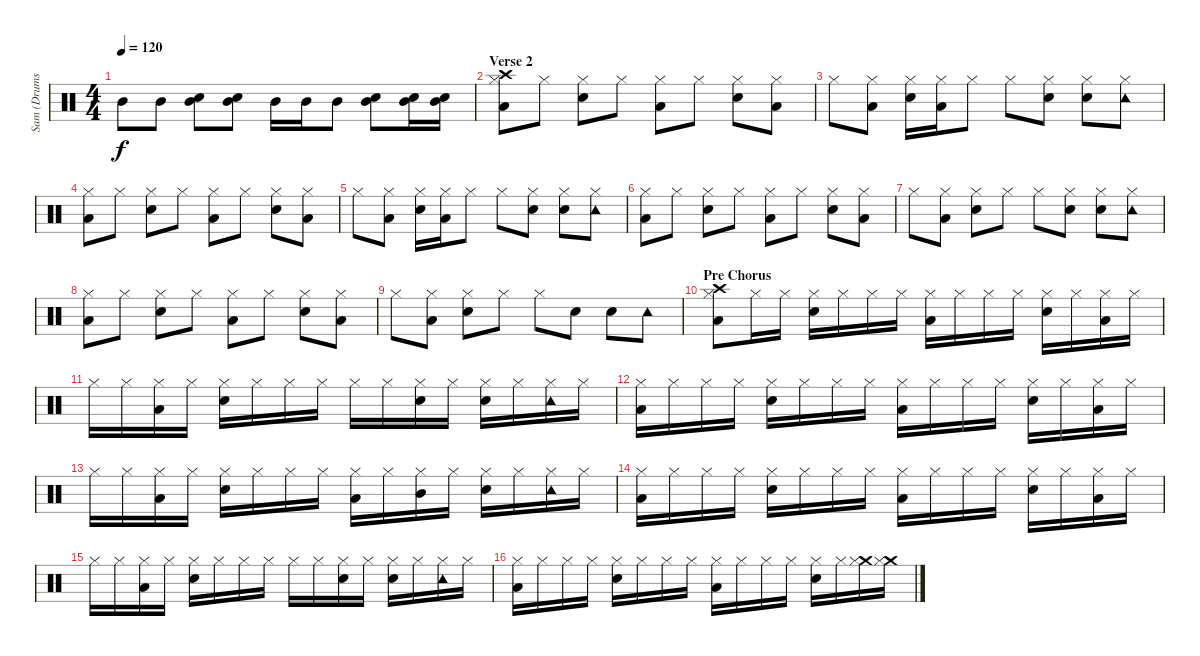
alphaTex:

\track ("Sam (Drums)" "Sam (Drums") {instrument percussion}
\staff {score}
\articulation defaults
\ts (4 4)
\tempo 120
\clef neutral
\ks c "Mid Tom (hit)".8{dy f} "Mid Tom (hit)".8
("Snare (hit) 2" "Mid Tom (hit)").8 ("Snare (hit) 2" "Mid Tom (hit)").8 "Mid Tom (hit)".16 "Mid Tom (hit)".16 "Mid Tom (hit)".8 ("Snare (hit) 2" "Mid Tom (hit)").8 ("Snare (hit) 2" "Mid Tom (hit)").16 ("Snare (hit) 2" "Mid Tom (hit)").16 |
\section ("" "Verse 2")
("Crash high (hit)" "Low Tom (hit)" "Hi-Hat (closed)").8 "Hi-Hat (closed)".8 ("Snare (hit) 2" "Hi-Hat (closed)").8 "Hi-Hat (closed)".8 ("Low Tom (hit)" "Hi-Hat (closed)").8 "Hi-Hat (closed)".8 ("Snare (hit) 2" "Hi-Hat (closed)").8 ("Low Tom (hit)" "Hi-Hat (closed)").8 |
"Hi-Hat (closed)".8 ("Low Tom (hit)" "Hi-Hat (closed)").8 ("Snare (hit) 2" "Hi-Hat (closed)").16 ("Low Tom (hit)" "Hi-Hat (closed)").16 "Hi-Hat (closed)".8 "Hi-Hat (closed)".8 ("Snare (hit) 2" "Hi-Hat (closed)").8 ("Snare (hit) 2" "Hi-Hat (closed)").8 ("Tambourine (hit)" "Hi-Hat (closed)").8 |
("Low Tom (hit)" "Hi-Hat (closed)").8 "Hi-Hat (closed)".8 ("Snare (hit) 2" "Hi-Hat (closed)").8 "Hi-Hat (closed)".8 ("Low Tom (hit)" "Hi-Hat (closed)").8 "Hi-Hat (closed)".8 ("Snare (hit) 2" "Hi-Hat (closed)").8 ("Low Tom (hit)" "Hi-Hat (closed)").8 |
"Hi-Hat (closed)".8 ("Low Tom (hit)" "Hi-Hat (closed)").8 ("Snare (hit) 2" "Hi-Hat (closed)").16 ("Low Tom (hit)" "Hi-Hat (closed)").16 "Hi-Hat (closed)".8 "Hi-Hat (closed)".8 ("Snare (hit) 2" "Hi-Hat (closed)").8 ("Snare (hit) 2" "Hi-Hat (closed)").8 ("Tambourine (hit)" "Hi-Hat (closed)").8 |
("Low Tom (hit)" "Hi-Hat (closed)").8 "Hi-Hat (closed)".8 ("Snare (hit) 2" "Hi-Hat (closed)").8 "Hi-Hat (closed)".8 ("Low Tom (hit)" "Hi-Hat (closed)").8 "Hi-Hat (closed)".8 ("Snare (hit) 2" "Hi-Hat (closed)").8 ("Low Tom (hit)" "Hi-Hat (closed)").8 |
"Hi-Hat (closed)".8 ("Low Tom (hit)" "Hi-Hat (closed)").8 ("Snare (hit) 2" "Hi-Hat (closed)").8 "Hi-Hat (closed)".8 "Hi-Hat (closed)".8 ("Snare (hit) 2" "Hi-Hat (closed)").8 ("Snare (hit) 2" "Hi-Hat (closed)").8 ("Tambourine (hit)" "Hi-Hat (closed)").8 |
("Low Tom (hit)" "Hi-Hat (closed)").8 "Hi-Hat (closed)".8 ("Snare (hit) 2" "Hi-Hat (closed)").8 "Hi-Hat (closed)".8 ("Low Tom (hit)" "Hi-Hat (closed)").8 "Hi-Hat (closed)".8 ("Snare (hit) 2" "Hi-Hat (closed)").8 ("Low Tom (hit)" "Hi-Hat (closed)").8 |
"Hi-Hat (closed)".8 ("Low Tom (hit)" "Hi-Hat (closed)").8 ("Snare (hit) 2" "Hi-Hat (closed)").8 "Hi-Hat (closed)".8 "Hi-Hat (closed)".8 "Electric Snare (hit)".8 "Snare (hit) 2".8 "Tambourine (hit)".8 |
\section ("" "Pre Chorus")
("Crash high (hit)" "Low Tom (hit)" "Hi-Hat (closed)").8 "Hi-Hat (closed)".16 "Hi-Hat (closed)".16 ("Snare (hit) 2" "Hi-Hat (closed)").16 "Hi-Hat (closed)".16 "Hi-Hat (closed)".16 "Hi-Hat (closed)".16 ("Low Tom (hit)" "Hi-Hat (closed)").16 "Hi-Hat (closed)".16 "Hi-Hat (closed)".16 "Hi-Hat (closed)".16 ("Snare (hit) 2" "Hi-Hat (closed)").16 "Hi-Hat (closed)".16 ("Low Tom (hit)" "Hi-Hat (closed)").16 "Hi-Hat (closed)".16 |
"Hi-Hat (closed)".16 "Hi-Hat (closed)".16 ("Low Tom (hit)" "Hi-Hat (closed)").16 "Hi-Hat (closed)".16 ("Snare (hit) 2" "Hi-Hat (closed)").16 "Hi-Hat (closed)".16 "Hi-Hat (closed)".16 "Hi-Hat (closed)".16 "Hi-Hat (closed)".16 "Hi-Hat (closed)".16 ("Snare (hit) 2" "Hi-Hat (closed)").16 "Hi-Hat (closed)".16 ("Snare (hit) 2" "Hi-Hat (closed)").16 "Hi-Hat (closed)".16 ("Tambourine (hit)" "Hi-Hat (closed)").16 "Hi-Hat (closed)".16 |
("Low Tom (hit)" "Hi-Hat (closed)").16 "Hi-Hat (closed)".16 "Hi-Hat (closed)".16 "Hi-Hat (closed)".16 ("Snare (hit) 2" "Hi-Hat (closed)").16 "Hi-Hat (closed)".16 "Hi-Hat (closed)".16 "Hi-Hat (closed)".16 ("Low Tom (hit)" "Hi-Hat (closed)").16 "Hi-Hat (closed)".16 "Hi-Hat (closed)".16 "Hi-Hat (closed)".16 ("Snare (hit) 2" "Hi-Hat (closed)").16 "Hi-Hat (closed)".16 ("Low Tom (hit)" "Hi-Hat (closed)").16 "Hi-Hat (closed)".16 |
"Hi-Hat (closed)".16 "Hi-Hat (closed)".16 ("Low Tom (hit)" "Hi-Hat (closed)").16 "Hi-Hat (closed)".16 ("Snare (hit) 2" "Hi-Hat (closed)").16 "Hi-Hat (closed)".16 "Hi-Hat (closed)".16 "Hi-Hat (closed)".16 ("Low Tom (hit)" "Hi-Hat (closed)").16 "Hi-Hat (closed)".16 ("Mid Tom (hit)" "Hi-Hat (closed)").16 "Hi-Hat (closed)".16 ("Snare (hit) 2" "Hi-Hat (closed)").16 "Hi-Hat (closed)".16 ("Tambourine (hit)" "Hi-Hat (closed)").16 "Hi-Hat (closed)".16 |
("Low Tom (hit)" "Hi-Hat (closed)").16 "Hi-Hat (closed)".16 "Hi-Hat (closed)".16 "Hi-Hat (closed)".16 ("Snare (hit) 2" "Hi-Hat (closed)").16 "Hi-Hat (closed)".16 "Hi-Hat (closed)".16 "Hi-Hat (closed)".16 ("Low Tom (hit)" "Hi-Hat (closed)").16 "Hi-Hat (closed)".16 "Hi-Hat (closed)".16 "Hi-Hat (closed)".16 ("Snare (hit) 2" "Hi-Hat (closed)").16 "Hi-Hat (closed)".16 ("Low Tom (hit)" "Hi-Hat (closed)").16 "Hi-Hat (closed)".16 |
"Hi-Hat (closed)".16 "Hi-Hat (closed)".16 ("Low Tom (hit)" "Hi-Hat (closed)").16 "Hi-Hat (closed)".16 ("Snare (hit) 2" "Hi-Hat (closed)").16 "Hi-Hat (closed)".16 "Hi-Hat (closed)".16 "Hi-Hat (closed)".16 "Hi-Hat (closed)".16 "Hi-Hat (closed)".16 ("Snare (hit) 2" "Hi-Hat (closed)").16 "Hi-Hat (closed)".16 ("Snare (hit) 2" "Hi-Hat (closed)").16 "Hi-Hat (closed)".16 ("Tambourine (hit)" "Hi-Hat (closed)").16 "Hi-Hat (closed)".16 |
("Low Tom (hit)" "Hi-Hat (closed)").16 "Hi-Hat (closed)".16 "Hi-Hat (closed)".16 "Hi-Hat (closed)".16 ("Snare (hit) 2" "Hi-Hat (closed)").16 "Hi-Hat (closed)".16 "Hi-Hat (closed)".16 "Hi-Hat (closed)".16 ("Low Tom (hit)" "Hi-Hat (closed)").16 "Hi-Hat (closed)".16 "Hi-Hat (closed)".16 "Hi-Hat (closed)".16 ("Snare (hit) 2" "Hi-Hat (closed)").16 "Hi-Hat (closed)".16 ("Crash medium (hit)" "Hi-Hat (closed)").16 ("Crash medium (hit)" "Hi-Hat (closed)").16
